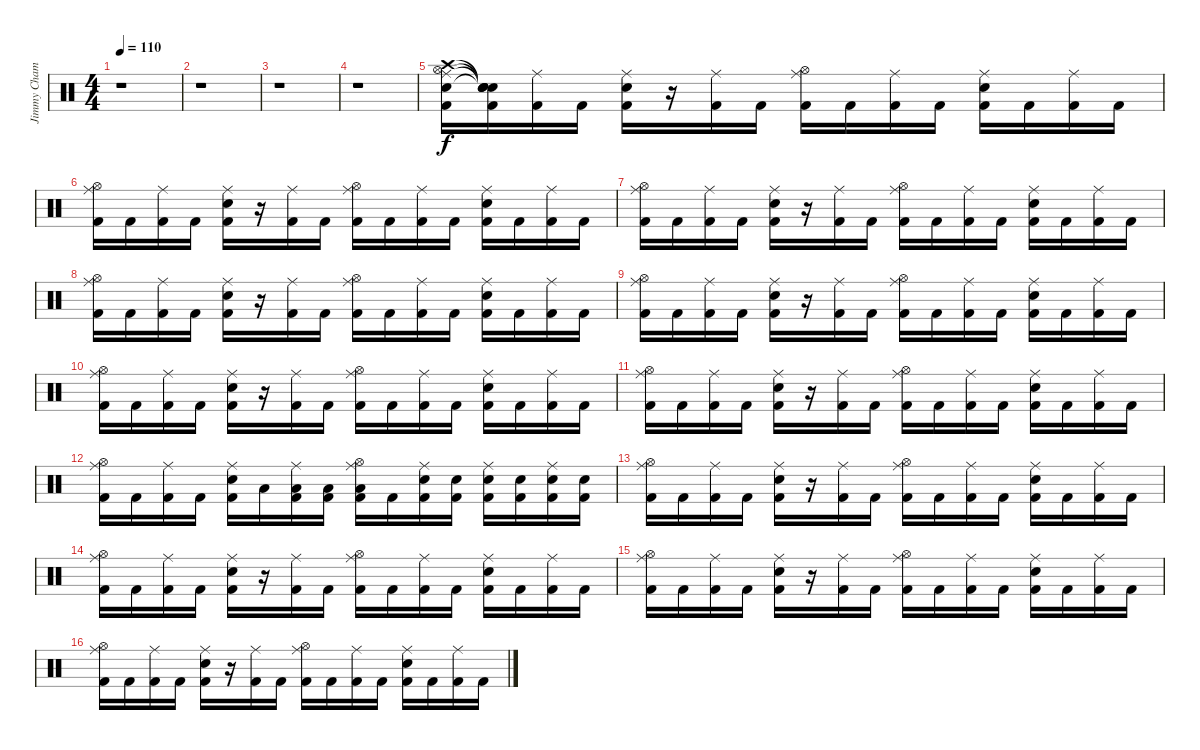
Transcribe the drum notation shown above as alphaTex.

\track ("Jimmy Chamberlin" "Jimmy Cham") {instrument percussion}
\staff {score}
\articulation defaults
\ts (4 4)
\tempo 110
\clef neutral
\ks c
r.1{dy f} |
r.1 |
r.1 |
r.1 |
("Kick (hit) 2" "Snare (hit) 2" "Hi-Hat (open)" "Crash high (hit)" "Ride (middle)").16 ("Kick (hit) 2" "Snare (hit)"{t} "Snare (hit)"{t} "Snare (hit)"{t} "Snare (hit)"{t}).16 ("Kick (hit) 2" "Ride (middle)").16 "Kick (hit) 2".16 ("Kick (hit) 2" "Snare (hit) 2" "Ride (middle)").16 r.16 ("Kick (hit) 2" "Ride (middle)").16 "Kick (hit) 2".16 ("Kick (hit) 2" "Hi-Hat (open)" "Ride (middle)").16 "Kick (hit) 2".16 ("Kick (hit) 2" "Ride (middle)").16 "Kick (hit) 2".16 ("Kick (hit) 2" "Snare (hit) 2" "Ride (middle)").16 "Kick (hit) 2".16 ("Kick (hit) 2" "Ride (middle)").16 "Kick (hit) 2".16 |
("Kick (hit) 2" "Hi-Hat (open)" "Ride (middle)").16 "Kick (hit) 2".16 ("Kick (hit) 2" "Ride (middle)").16 "Kick (hit) 2".16 ("Kick (hit) 2" "Snare (hit) 2" "Ride (middle)").16 r.16 ("Kick (hit) 2" "Ride (middle)").16 "Kick (hit) 2".16 ("Kick (hit) 2" "Hi-Hat (open)" "Ride (middle)").16 "Kick (hit) 2".16 ("Kick (hit) 2" "Ride (middle)").16 "Kick (hit) 2".16 ("Kick (hit) 2" "Snare (hit) 2" "Ride (middle)").16 "Kick (hit) 2".16 ("Kick (hit) 2" "Ride (middle)").16 "Kick (hit) 2".16 |
("Kick (hit) 2" "Hi-Hat (open)" "Ride (middle)").16 "Kick (hit) 2".16 ("Kick (hit) 2" "Ride (middle)").16 "Kick (hit) 2".16 ("Kick (hit) 2" "Snare (hit) 2" "Ride (middle)").16 r.16 ("Kick (hit) 2" "Ride (middle)").16 "Kick (hit) 2".16 ("Kick (hit) 2" "Hi-Hat (open)" "Ride (middle)").16 "Kick (hit) 2".16 ("Kick (hit) 2" "Ride (middle)").16 "Kick (hit) 2".16 ("Kick (hit) 2" "Snare (hit) 2" "Ride (middle)").16 "Kick (hit) 2".16 ("Kick (hit) 2" "Ride (middle)").16 "Kick (hit) 2".16 |
("Kick (hit) 2" "Hi-Hat (open)" "Ride (middle)").16 "Kick (hit) 2".16 ("Kick (hit) 2" "Ride (middle)").16 "Kick (hit) 2".16 ("Kick (hit) 2" "Snare (hit) 2" "Ride (middle)").16 r.16 ("Kick (hit) 2" "Ride (middle)").16 "Kick (hit) 2".16 ("Kick (hit) 2" "Hi-Hat (open)" "Ride (middle)").16 "Kick (hit) 2".16 ("Kick (hit) 2" "Ride (middle)").16 "Kick (hit) 2".16 ("Kick (hit) 2" "Snare (hit) 2" "Ride (middle)").16 "Kick (hit) 2".16 ("Kick (hit) 2" "Ride (middle)").16 "Kick (hit) 2".16 |
("Kick (hit) 2" "Hi-Hat (open)" "Ride (middle)").16 "Kick (hit) 2".16 ("Kick (hit) 2" "Ride (middle)").16 "Kick (hit) 2".16 ("Kick (hit) 2" "Snare (hit) 2" "Ride (middle)").16 r.16 ("Kick (hit) 2" "Ride (middle)").16 "Kick (hit) 2".16 ("Kick (hit) 2" "Hi-Hat (open)" "Ride (middle)").16 "Kick (hit) 2".16 ("Kick (hit) 2" "Ride (middle)").16 "Kick (hit) 2".16 ("Kick (hit) 2" "Snare (hit) 2" "Ride (middle)").16 "Kick (hit) 2".16 ("Kick (hit) 2" "Ride (middle)").16 "Kick (hit) 2".16 |
("Kick (hit) 2" "Hi-Hat (open)" "Ride (middle)").16 "Kick (hit) 2".16 ("Kick (hit) 2" "Ride (middle)").16 "Kick (hit) 2".16 ("Kick (hit) 2" "Snare (hit) 2" "Ride (middle)").16 r.16 ("Kick (hit) 2" "Ride (middle)").16 "Kick (hit) 2".16 ("Kick (hit) 2" "Hi-Hat (open)" "Ride (middle)").16 "Kick (hit) 2".16 ("Kick (hit) 2" "Ride (middle)").16 "Kick (hit) 2".16 ("Kick (hit) 2" "Snare (hit) 2" "Ride (middle)").16 "Kick (hit) 2".16 ("Kick (hit) 2" "Ride (middle)").16 "Kick (hit) 2".16 |
("Kick (hit) 2" "Hi-Hat (open)" "Ride (middle)").16 "Kick (hit) 2".16 ("Kick (hit) 2" "Ride (middle)").16 "Kick (hit) 2".16 ("Kick (hit) 2" "Snare (hit) 2" "Ride (middle)").16 r.16 ("Kick (hit) 2" "Ride (middle)").16 "Kick (hit) 2".16 ("Kick (hit) 2" "Hi-Hat (open)" "Ride (middle)").16 "Kick (hit) 2".16 ("Kick (hit) 2" "Ride (middle)").16 "Kick (hit) 2".16 ("Kick (hit) 2" "Snare (hit) 2" "Ride (middle)").16 "Kick (hit) 2".16 ("Kick (hit) 2" "Ride (middle)").16 "Kick (hit) 2".16 |
("Kick (hit) 2" "Hi-Hat (open)" "Ride (middle)").16 "Kick (hit) 2".16 ("Kick (hit) 2" "Ride (middle)").16 "Kick (hit) 2".16 ("Kick (hit) 2" "Snare (hit) 2" "Ride (middle)").16 "Low Floor Tom (hit)".16 ("Kick (hit) 2" "Low Floor Tom (hit)" "Ride (middle)").16 ("Kick (hit) 2" "Low Floor Tom (hit)").16 ("Kick (hit) 2" "Low Floor Tom (hit)" "Hi-Hat (open)" "Ride (middle)").16 "Kick (hit) 2".16 ("Kick (hit) 2" "Snare (hit) 2" "Ride (middle)").16 ("Kick (hit) 2" "Snare (hit) 2").16 ("Kick (hit) 2" "Snare (hit) 2" "Ride (middle)").16 ("Kick (hit) 2" "Snare (hit) 2").16 ("Kick (hit) 2" "Snare (hit) 2" "Ride (middle)").16 ("Kick (hit) 2" "Snare (hit) 2").16 |
("Kick (hit) 2" "Hi-Hat (open)" "Ride (middle)").16 "Kick (hit) 2".16 ("Kick (hit) 2" "Ride (middle)").16 "Kick (hit) 2".16 ("Kick (hit) 2" "Snare (hit) 2" "Ride (middle)").16 r.16 ("Kick (hit) 2" "Ride (middle)").16 "Kick (hit) 2".16 ("Kick (hit) 2" "Hi-Hat (open)" "Ride (middle)").16 "Kick (hit) 2".16 ("Kick (hit) 2" "Ride (middle)").16 "Kick (hit) 2".16 ("Kick (hit) 2" "Snare (hit) 2" "Ride (middle)").16 "Kick (hit) 2".16 ("Kick (hit) 2" "Ride (middle)").16 "Kick (hit) 2".16 |
("Kick (hit) 2" "Hi-Hat (open)" "Ride (middle)").16 "Kick (hit) 2".16 ("Kick (hit) 2" "Ride (middle)").16 "Kick (hit) 2".16 ("Kick (hit) 2" "Snare (hit) 2" "Ride (middle)").16 r.16 ("Kick (hit) 2" "Ride (middle)").16 "Kick (hit) 2".16 ("Kick (hit) 2" "Hi-Hat (open)" "Ride (middle)").16 "Kick (hit) 2".16 ("Kick (hit) 2" "Ride (middle)").16 "Kick (hit) 2".16 ("Kick (hit) 2" "Snare (hit) 2" "Ride (middle)").16 "Kick (hit) 2".16 ("Kick (hit) 2" "Ride (middle)").16 "Kick (hit) 2".16 |
("Kick (hit) 2" "Hi-Hat (open)" "Ride (middle)").16 "Kick (hit) 2".16 ("Kick (hit) 2" "Ride (middle)").16 "Kick (hit) 2".16 ("Kick (hit) 2" "Snare (hit) 2" "Ride (middle)").16 r.16 ("Kick (hit) 2" "Ride (middle)").16 "Kick (hit) 2".16 ("Kick (hit) 2" "Hi-Hat (open)" "Ride (middle)").16 "Kick (hit) 2".16 ("Kick (hit) 2" "Ride (middle)").16 "Kick (hit) 2".16 ("Kick (hit) 2" "Snare (hit) 2" "Ride (middle)").16 "Kick (hit) 2".16 ("Kick (hit) 2" "Ride (middle)").16 "Kick (hit) 2".16 |
("Kick (hit) 2" "Hi-Hat (open)" "Ride (middle)").16 "Kick (hit) 2".16 ("Kick (hit) 2" "Ride (middle)").16 "Kick (hit) 2".16 ("Kick (hit) 2" "Snare (hit) 2" "Ride (middle)").16 r.16 ("Kick (hit) 2" "Ride (middle)").16 "Kick (hit) 2".16 ("Kick (hit) 2" "Hi-Hat (open)" "Ride (middle)").16 "Kick (hit) 2".16 ("Kick (hit) 2" "Ride (middle)").16 "Kick (hit) 2".16 ("Kick (hit) 2" "Snare (hit) 2" "Ride (middle)").16 "Kick (hit) 2".16 ("Kick (hit) 2" "Ride (middle)").16 "Kick (hit) 2".16
